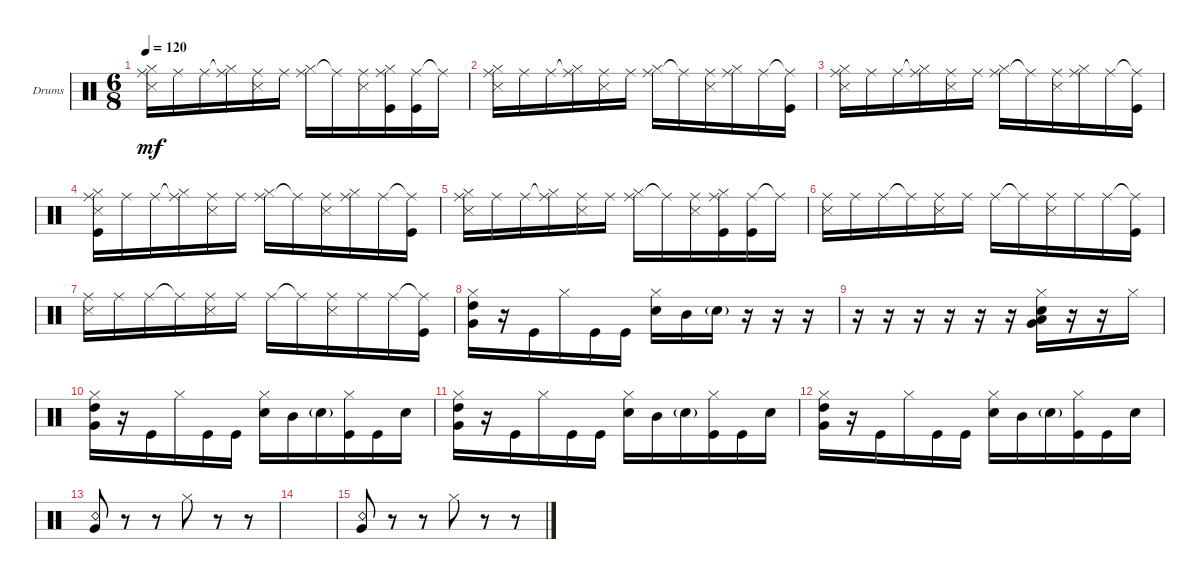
\defaultSystemsLayout 4
\bracketExtendMode groupsimilarinstruments
\firstSystemTrackNameOrientation horizontal
\otherSystemsTrackNameOrientation horizontal
\track ("Drumkit" "Drums") {instrument percussion}
\staff {score}
\articulation defaults
\ts (6 8)
\tempo 120
\clef neutral
\ks c
("Snare (side stick) 3" "Ride (middle)" "Hi-Hat (closed)").16{dy mf} "Ride (middle)".16 "Ride (middle)".16 ("Ride (middle)"{t} "Hi-Hat (closed)").16 ("Snare (side stick) 3" "Ride (middle)").16 "Ride (middle)".16 ("Ride (middle)" "Hi-Hat (closed)").16 "Ride (middle)"{t}.16 ("Snare (side stick) 3" "Ride (middle)").16 ("Ride (middle)" "Kick (hit)" "Hi-Hat (closed)").16 ("Ride (middle)" "Kick (hit)").16 "Ride (middle)"{t}.16 |
("Snare (side stick) 3" "Ride (middle)" "Hi-Hat (closed)").16 "Ride (middle)".16 "Ride (middle)".16 ("Ride (middle)"{t} "Hi-Hat (closed)").16 ("Snare (side stick) 3" "Ride (middle)").16 "Ride (middle)".16 ("Ride (middle)" "Hi-Hat (closed)").16 "Ride (middle)"{t}.16 ("Snare (side stick) 3" "Ride (middle)").16 ("Ride (middle)" "Hi-Hat (closed)").16 "Ride (middle)".16 ("Ride (middle)"{t} "Kick (hit)").16 |
("Snare (side stick) 3" "Ride (middle)" "Hi-Hat (closed)").16 "Ride (middle)".16 "Ride (middle)".16 ("Ride (middle)"{t} "Hi-Hat (closed)").16 ("Snare (side stick) 3" "Ride (middle)").16 "Ride (middle)".16 ("Ride (middle)" "Hi-Hat (closed)").16 "Ride (middle)"{t}.16 ("Snare (side stick) 3" "Ride (middle)").16 ("Ride (middle)" "Hi-Hat (closed)").16 "Ride (middle)".16 ("Ride (middle)"{t} "Kick (hit)").16 |
("Snare (side stick) 3" "Ride (middle)" "Hi-Hat (closed)" "Kick (hit)").16 "Ride (middle)".16 "Ride (middle)".16 ("Ride (middle)"{t} "Hi-Hat (closed)").16 ("Snare (side stick) 3" "Ride (middle)").16 "Ride (middle)".16 ("Ride (middle)" "Hi-Hat (closed)").16 "Ride (middle)"{t}.16 ("Snare (side stick) 3" "Ride (middle)").16 ("Ride (middle)" "Hi-Hat (closed)").16 "Ride (middle)".16 ("Ride (middle)"{t} "Kick (hit)").16 |
("Snare (side stick) 3" "Ride (middle)" "Hi-Hat (closed)").16 "Ride (middle)".16 "Ride (middle)".16 ("Ride (middle)"{t} "Hi-Hat (closed)").16 ("Snare (side stick) 3" "Ride (middle)").16 "Ride (middle)".16 ("Ride (middle)" "Hi-Hat (closed)").16 "Ride (middle)"{t}.16 ("Snare (side stick) 3" "Ride (middle)").16 ("Ride (middle)" "Kick (hit)" "Hi-Hat (closed)").16 ("Ride (middle)" "Kick (hit)").16 "Ride (middle)"{t}.16 |
("Snare (side stick) 3" "Ride (middle)").16 "Ride (middle)".16 "Ride (middle)".16 "Ride (middle)"{t}.16 ("Snare (side stick) 3" "Ride (middle)").16 "Ride (middle)".16 "Ride (middle)".16 "Ride (middle)"{t}.16 ("Snare (side stick) 3" "Ride (middle)").16 "Ride (middle)".16 "Ride (middle)".16 ("Ride (middle)"{t} "Kick (hit)").16 |
("Snare (side stick) 3" "Ride (middle)").16 "Ride (middle)".16 "Ride (middle)".16 "Ride (middle)"{t}.16 ("Snare (side stick) 3" "Ride (middle)").16 "Ride (middle)".16 "Ride (middle)".16 "Ride (middle)"{t}.16 ("Snare (side stick) 3" "Ride (middle)").16 "Ride (middle)".16 "Ride (middle)".16 ("Ride (middle)"{t} "Kick (hit)").16 |
("Very Low Tom (hit)" "Hi-Hat (closed)" "High Tom (hit)").16 r.16 "Kick (hit)".16 "Hi-Hat (closed)".16 "Kick (hit)".16 "Kick (hit)".16 ("Snare (hit) 2" "Hi-Hat (closed)").16 "Mid Tom (hit)".16 "Snare (hit) 2"{g}.16 r.16 r.16 r.16 |
r.16 r.16 r.16 r.16 r.16 r.16 ("Hi-Hat (closed)" "Very Low Tom (hit)" "Low Tom (hit)" "Snare (hit) 2").16 r.16 r.16 "Hi-Hat (closed)".16 |
("Very Low Tom (hit)" "Hi-Hat (closed)" "High Tom (hit)").16 r.16 "Kick (hit)".16 "Hi-Hat (closed)".16 "Kick (hit)".16 "Kick (hit)".16 ("Snare (hit) 2" "Hi-Hat (closed)").16 "Mid Tom (hit)".16 "Snare (hit) 2"{g}.16 ("Kick (hit)" "Hi-Hat (closed)").16 "Kick (hit)".16 "Snare (hit) 2".16 |
("Very Low Tom (hit)" "Hi-Hat (closed)" "High Tom (hit)").16 r.16 "Kick (hit)".16 "Hi-Hat (closed)".16 "Kick (hit)".16 "Kick (hit)".16 ("Snare (hit) 2" "Hi-Hat (closed)").16 "Mid Tom (hit)".16 "Snare (hit) 2"{g}.16 ("Kick (hit)" "Hi-Hat (closed)").16 "Kick (hit)".16 "Snare (hit) 2".16 |
("Very Low Tom (hit)" "Hi-Hat (closed)" "High Tom (hit)").16 r.16 "Kick (hit)".16 "Hi-Hat (closed)".16 "Kick (hit)".16 "Kick (hit)".16 ("Snare (hit) 2" "Hi-Hat (closed)").16 "Mid Tom (hit)".16 "Snare (hit) 2"{g}.16 ("Kick (hit)" "Hi-Hat (closed)").16 "Kick (hit)".16 "Snare (hit) 2".16 |
("Very Low Tom (hit)" "Snare (rim shot)").8 r.8 r.8 "Hi-Hat (closed)".8 r.8 r.8 |
|
("Very Low Tom (hit)" "Snare (rim shot)").8 r.8 r.8 "Hi-Hat (closed)".8 r.8 r.8
